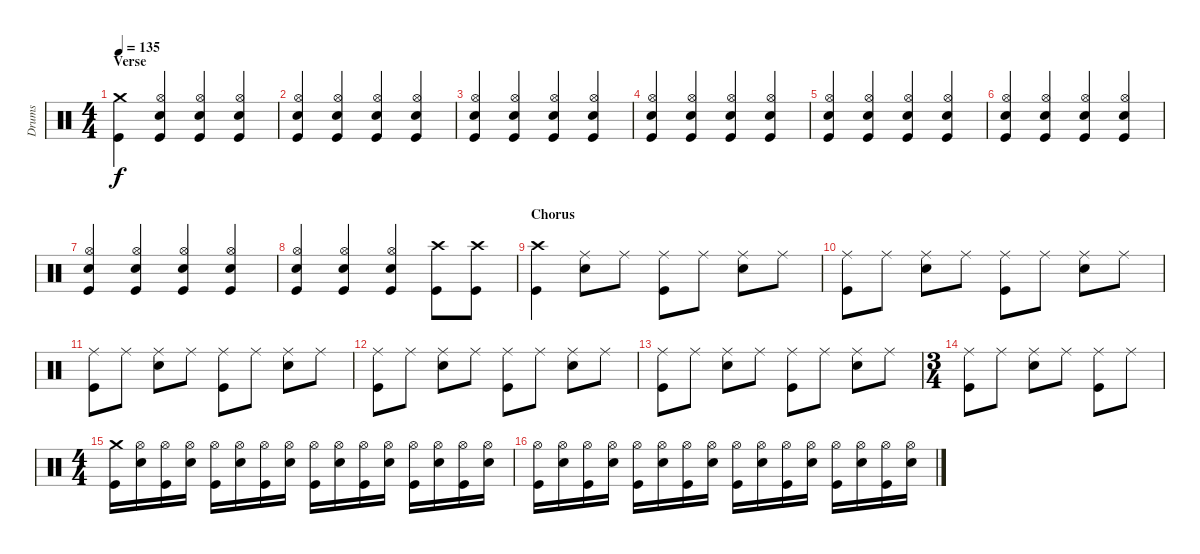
\track ("Drums" "Drums") {instrument percussion}
\staff {score}
\articulation defaults
\ts (4 4)
\section ("" "Verse")
\tempo 135
\clef neutral
\ks c
("Crash medium (hit)" "Kick (hit)").4{dy f} ("Hi-Hat (open)" "Snare (hit) 2" "Kick (hit)").4 ("Hi-Hat (open)" "Snare (hit) 2" "Kick (hit)").4 ("Hi-Hat (open)" "Snare (hit) 2" "Kick (hit)").4 |
("Hi-Hat (open)" "Snare (hit) 2" "Kick (hit)").4 ("Hi-Hat (open)" "Snare (hit) 2" "Kick (hit)").4 ("Hi-Hat (open)" "Snare (hit) 2" "Kick (hit)").4 ("Hi-Hat (open)" "Snare (hit) 2" "Kick (hit)").4 |
("Hi-Hat (open)" "Snare (hit) 2" "Kick (hit)").4 ("Hi-Hat (open)" "Snare (hit) 2" "Kick (hit)").4 ("Hi-Hat (open)" "Snare (hit) 2" "Kick (hit)").4 ("Hi-Hat (open)" "Snare (hit) 2" "Kick (hit)").4 |
("Hi-Hat (open)" "Snare (hit) 2" "Kick (hit)").4 ("Hi-Hat (open)" "Snare (hit) 2" "Kick (hit)").4 ("Hi-Hat (open)" "Snare (hit) 2" "Kick (hit)").4 ("Hi-Hat (open)" "Snare (hit) 2" "Kick (hit)").4 |
("Hi-Hat (open)" "Snare (hit) 2" "Kick (hit)").4 ("Hi-Hat (open)" "Snare (hit) 2" "Kick (hit)").4 ("Hi-Hat (open)" "Snare (hit) 2" "Kick (hit)").4 ("Hi-Hat (open)" "Snare (hit) 2" "Kick (hit)").4 |
("Hi-Hat (open)" "Snare (hit) 2" "Kick (hit)").4 ("Hi-Hat (open)" "Snare (hit) 2" "Kick (hit)").4 ("Hi-Hat (open)" "Snare (hit) 2" "Kick (hit)").4 ("Hi-Hat (open)" "Snare (hit) 2" "Kick (hit)").4 |
("Hi-Hat (open)" "Snare (hit) 2" "Kick (hit)").4 ("Hi-Hat (open)" "Snare (hit) 2" "Kick (hit)").4 ("Hi-Hat (open)" "Snare (hit) 2" "Kick (hit)").4 ("Hi-Hat (open)" "Snare (hit) 2" "Kick (hit)").4 |
("Hi-Hat (open)" "Snare (hit) 2" "Kick (hit)").4 ("Hi-Hat (open)" "Snare (hit) 2" "Kick (hit)").4 ("Hi-Hat (open)" "Snare (hit) 2" "Kick (hit)").4 ("Crash high (hit)" "Kick (hit)").8 ("Crash high (hit)" "Kick (hit)").8 |
\section ("" "Chorus")
("Crash high (hit)" "Kick (hit)").4 ("Ride (middle)" "Snare (hit) 2").8 "Ride (middle)".8 ("Ride (middle)" "Kick (hit)").8 "Ride (middle)".8 ("Ride (middle)" "Snare (hit) 2").8 "Ride (middle)".8 |
("Ride (middle)" "Kick (hit)").8 "Ride (middle)".8 ("Ride (middle)" "Snare (hit) 2").8 "Ride (middle)".8 ("Ride (middle)" "Kick (hit)").8 "Ride (middle)".8 ("Ride (middle)" "Snare (hit) 2").8 "Ride (middle)".8 |
("Ride (middle)" "Kick (hit)").8 "Ride (middle)".8 ("Ride (middle)" "Snare (hit) 2").8 "Ride (middle)".8 ("Ride (middle)" "Kick (hit)").8 "Ride (middle)".8 ("Ride (middle)" "Snare (hit) 2").8 "Ride (middle)".8 |
("Ride (middle)" "Kick (hit)").8 "Ride (middle)".8 ("Ride (middle)" "Snare (hit) 2").8 "Ride (middle)".8 ("Ride (middle)" "Kick (hit)").8 "Ride (middle)".8 ("Ride (middle)" "Snare (hit) 2").8 "Ride (middle)".8 |
("Ride (middle)" "Kick (hit)").8 "Ride (middle)".8 ("Ride (middle)" "Snare (hit) 2").8 "Ride (middle)".8 ("Ride (middle)" "Kick (hit)").8 "Ride (middle)".8 ("Ride (middle)" "Snare (hit) 2").8 "Ride (middle)".8 |
\ts (3 4)
("Ride (middle)" "Kick (hit)").8 "Ride (middle)".8 ("Ride (middle)" "Snare (hit) 2").8 "Ride (middle)".8 ("Ride (middle)" "Kick (hit)").8 "Ride (middle)".8 |
\ts (4 4)
("Crash medium (hit)" "Kick (hit)").16 ("Hi-Hat (open)" "Snare (hit) 2").16 ("Hi-Hat (open)" "Kick (hit)").16 ("Hi-Hat (open)" "Snare (hit) 2").16 ("Hi-Hat (open)" "Kick (hit)").16 ("Hi-Hat (open)" "Snare (hit) 2").16 ("Hi-Hat (open)" "Kick (hit)").16 ("Hi-Hat (open)" "Snare (hit) 2").16 ("Hi-Hat (open)" "Kick (hit)").16 ("Hi-Hat (open)" "Snare (hit) 2").16 ("Hi-Hat (open)" "Kick (hit)").16 ("Hi-Hat (open)" "Snare (hit) 2").16 ("Hi-Hat (open)" "Kick (hit)").16 ("Hi-Hat (open)" "Snare (hit) 2").16 ("Hi-Hat (open)" "Kick (hit)").16 ("Hi-Hat (open)" "Snare (hit) 2").16 |
("Hi-Hat (open)" "Kick (hit)").16 ("Hi-Hat (open)" "Snare (hit) 2").16 ("Hi-Hat (open)" "Kick (hit)").16 ("Hi-Hat (open)" "Snare (hit) 2").16 ("Hi-Hat (open)" "Kick (hit)").16 ("Hi-Hat (open)" "Snare (hit) 2").16 ("Hi-Hat (open)" "Kick (hit)").16 ("Hi-Hat (open)" "Snare (hit) 2").16 ("Hi-Hat (open)" "Kick (hit)").16 ("Hi-Hat (open)" "Snare (hit) 2").16 ("Hi-Hat (open)" "Kick (hit)").16 ("Hi-Hat (open)" "Snare (hit) 2").16 ("Hi-Hat (open)" "Kick (hit)").16 ("Hi-Hat (open)" "Snare (hit) 2").16 ("Hi-Hat (open)" "Kick (hit)").16 ("Hi-Hat (open)" "Snare (hit) 2").16
